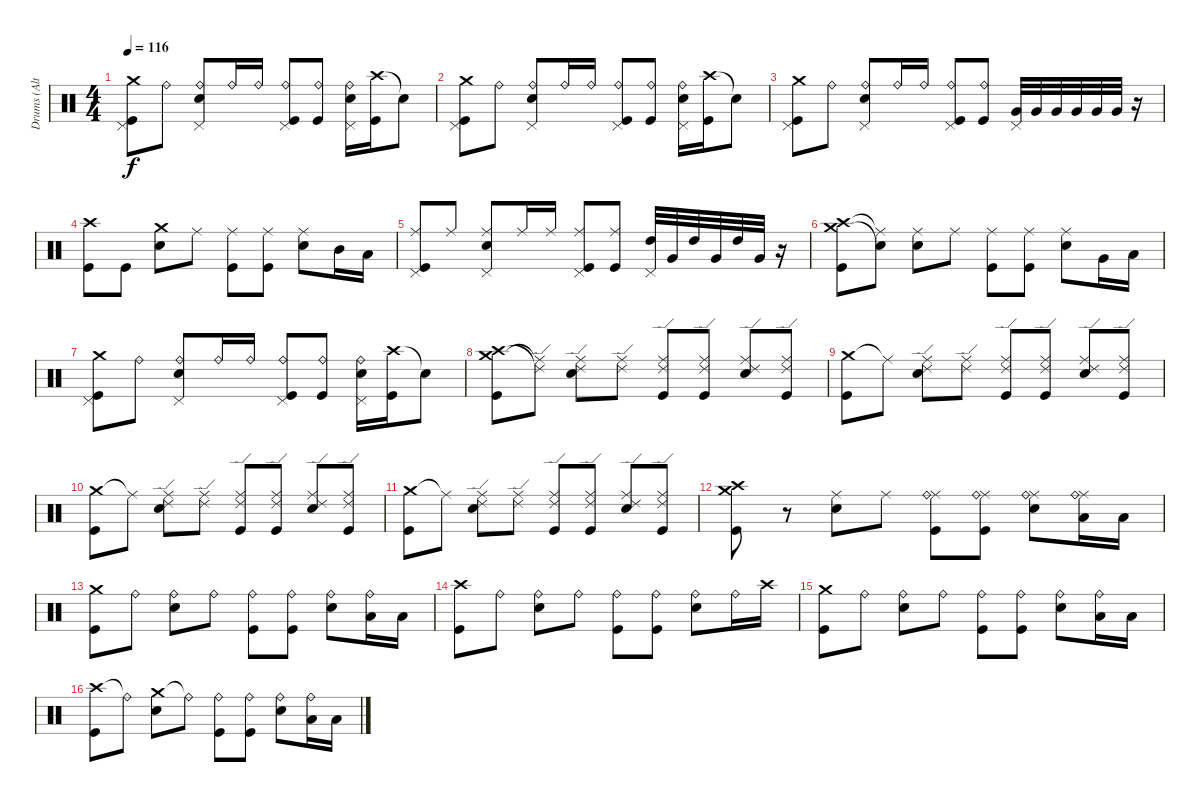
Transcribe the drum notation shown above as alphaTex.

\track ("Drums (Alternate - NOT ON MASTER)" "Drums (Alt") {mute instrument percussion}
\staff {score}
\articulation defaults
\ts (4 4)
\tempo 116
\clef neutral
\ks c
("Crash medium (hit)" "Pedal Hi-Hat (hit)" "Kick (hit)").8{dy f} "Ride (bell)".8 ("Ride (bell)" "Snare (hit) 2" "Pedal Hi-Hat (hit)").8 "Ride (bell)".16 "Ride (bell)".16 ("Ride (bell)" "Pedal Hi-Hat (hit)" "Kick (hit)").8 ("Ride (bell)" "Kick (hit)").8 ("Ride (bell)" "Snare (hit) 2" "Pedal Hi-Hat (hit)").16 ("Crash high (hit)" "Kick (hit)").16 "Snare (hit)"{t}.8 |
("Crash medium (hit)" "Pedal Hi-Hat (hit)" "Kick (hit)").8 "Ride (bell)".8 ("Ride (bell)" "Snare (hit) 2" "Pedal Hi-Hat (hit)").8 "Ride (bell)".16 "Ride (bell)".16 ("Ride (bell)" "Pedal Hi-Hat (hit)" "Kick (hit)").8 ("Ride (bell)" "Kick (hit)").8 ("Ride (bell)" "Snare (hit) 2" "Pedal Hi-Hat (hit)").16 ("Crash high (hit)" "Kick (hit)").16 "Snare (hit)"{t}.8 |
("Crash medium (hit)" "Pedal Hi-Hat (hit)" "Kick (hit)").8 "Ride (bell)".8 ("Ride (bell)" "Snare (hit) 2" "Pedal Hi-Hat (hit)").8 "Ride (bell)".16 "Ride (bell)".16 ("Ride (bell)" "Pedal Hi-Hat (hit)" "Kick (hit)").8 ("Ride (bell)" "Kick (hit)").8 ("Very Low Tom (hit)" "Pedal Hi-Hat (hit)").32 "Very Low Tom (hit)".32 "Very Low Tom (hit)".32 "Very Low Tom (hit)".32 "Very Low Tom (hit)".32 "Very Low Tom (hit)".32 r.16 |
("Crash high (hit)" "Kick (hit)").8 "Kick (hit)".8 ("Crash medium (hit)" "Snare (hit) 2").8 "Ride (middle)".8 ("Ride (middle)" "Kick (hit)").8 ("Ride (middle)" "Kick (hit)").8 ("Ride (middle)" "Snare (hit) 2").8 "Mid Tom (hit)".16 "Low Tom (hit)".16 |
("Ride (middle)" "Pedal Hi-Hat (hit)" "Kick (hit)").8 "Ride (middle)".8 ("Ride (middle)" "Snare (hit) 2" "Pedal Hi-Hat (hit)").8 "Ride (middle)".16 "Ride (middle)".16 ("Ride (middle)" "Pedal Hi-Hat (hit)" "Kick (hit)").8 ("Ride (middle)" "Kick (hit)").8 ("High Tom (hit)" "Pedal Hi-Hat (hit)").32 "Very Low Tom (hit)".32 "High Tom (hit)".32 "Very Low Tom (hit)".32 "High Tom (hit)".32 "Very Low Tom (hit)".32 r.16 |
("Crash high (hit)" "Crash medium (hit)" "Kick (hit)").8 ("Ride (middle)"{t} "Snare (hit)"{t}).8 ("Ride (middle)" "Snare (hit) 2").8 "Ride (middle)".8 ("Ride (middle)" "Kick (hit)").8 ("Ride (middle)" "Kick (hit)").8 ("Ride (middle)" "Snare (hit) 2").8 "Very Low Tom (hit)".16 "Low Floor Tom (hit)".16 |
("Crash medium (hit)" "Pedal Hi-Hat (hit)" "Kick (hit)").8 "Ride (bell)".8 ("Ride (bell)" "Snare (hit) 2" "Pedal Hi-Hat (hit)").8 "Ride (bell)".16 "Ride (bell)".16 ("Ride (bell)" "Pedal Hi-Hat (hit)" "Kick (hit)").8 ("Ride (bell)" "Kick (hit)").8 ("Ride (bell)" "Snare (hit) 2" "Pedal Hi-Hat (hit)").16 ("Crash high (hit)" "Kick (hit)").16 "Snare (hit)"{t}.8 |
("Crash medium (hit)" "Crash high (hit)" "Kick (hit)").8 ("Ride (middle)"{t} "Ride (edge) 2"{t}).8 ("Ride (middle)" "Ride (edge) 2" "Snare (hit) 2").8 ("Ride (middle)" "Ride (edge) 2").8 ("Ride (middle)" "Ride (edge) 2" "Kick (hit)").8 ("Ride (middle)" "Ride (edge) 2" "Kick (hit)").8 ("Ride (middle)" "Ride (edge) 2" "Snare (hit) 2").8 ("Ride (middle)" "Ride (edge) 2" "Kick (hit)").8 |
("Crash medium (hit)" "Kick (hit)").8 "Ride (middle)"{t}.8 ("Ride (middle)" "Ride (edge) 2" "Snare (hit) 2").8 ("Ride (middle)" "Ride (edge) 2").8 ("Ride (middle)" "Ride (edge) 2" "Kick (hit)").8 ("Ride (middle)" "Ride (edge) 2" "Kick (hit)").8 ("Ride (middle)" "Ride (edge) 2" "Snare (hit) 2").8 ("Ride (middle)" "Ride (edge) 2" "Kick (hit)").8 |
("Crash medium (hit)" "Kick (hit)").8 "Ride (middle)"{t}.8 ("Ride (middle)" "Ride (edge) 2" "Snare (hit) 2").8 ("Ride (middle)" "Ride (edge) 2").8 ("Ride (middle)" "Ride (edge) 2" "Kick (hit)").8 ("Ride (middle)" "Ride (edge) 2" "Kick (hit)").8 ("Ride (middle)" "Ride (edge) 2" "Snare (hit) 2").8 ("Ride (middle)" "Ride (edge) 2" "Kick (hit)").8 |
("Crash medium (hit)" "Kick (hit)").8 "Ride (middle)"{t}.8 ("Ride (middle)" "Ride (edge) 2" "Snare (hit) 2").8 ("Ride (middle)" "Ride (edge) 2").8 ("Ride (middle)" "Ride (edge) 2" "Kick (hit)").8 ("Ride (middle)" "Ride (edge) 2" "Kick (hit)").8 ("Ride (middle)" "Ride (edge) 2" "Snare (hit) 2").8 ("Ride (middle)" "Ride (edge) 2" "Kick (hit)").8 |
("Crash medium (hit)" "Crash high (hit)" "Kick (hit)").8 r.8 ("Ride (middle)" "Snare (hit) 2").8 "Ride (middle)".8 ("Ride (middle)" "Ride (bell)" "Kick (hit)").8 ("Ride (middle)" "Ride (bell)" "Kick (hit)").8 ("Ride (middle)" "Ride (bell)" "Snare (hit) 2").8 ("Ride (middle)" "Ride (bell)" "Low Tom (hit)").16 "Low Tom (hit)".16 |
("Crash medium (hit)" "Kick (hit)").8 "Ride (bell)".8 ("Ride (bell)" "Snare (hit) 2").8 "Ride (bell)".8 ("Ride (bell)" "Kick (hit)").8 ("Ride (bell)" "Kick (hit)").8 ("Ride (bell)" "Snare (hit) 2").8 ("Ride (bell)" "Low Tom (hit)").16 "Low Tom (hit)".16 |
("Crash high (hit)" "Kick (hit)").8 "Ride (bell)".8 ("Ride (bell)" "Snare (hit) 2").8 "Ride (bell)".8 ("Ride (bell)" "Kick (hit)").8 ("Ride (bell)" "Kick (hit)").8 ("Ride (bell)" "Snare (hit) 2").8 "Ride (bell)".16 "Crash high (hit)".16 |
("Crash medium (hit)" "Kick (hit)").8 "Ride (bell)".8 ("Ride (bell)" "Snare (hit) 2").8 "Ride (bell)".8 ("Ride (bell)" "Kick (hit)").8 ("Ride (bell)" "Kick (hit)").8 ("Ride (bell)" "Snare (hit) 2").8 ("Ride (bell)" "Low Tom (hit)").16 "Low Tom (hit)".16 |
("Crash high (hit)" "Kick (hit)").8 "Ride (bell)"{t}.8 ("Crash medium (hit)" "Snare (hit) 2").8 "Ride (bell)"{t}.8 ("Ride (bell)" "Kick (hit)").8 ("Ride (bell)" "Kick (hit)").8 ("Ride (bell)" "Snare (hit) 2").8 ("Ride (bell)" "Low Tom (hit)").16 "Low Tom (hit)".16
